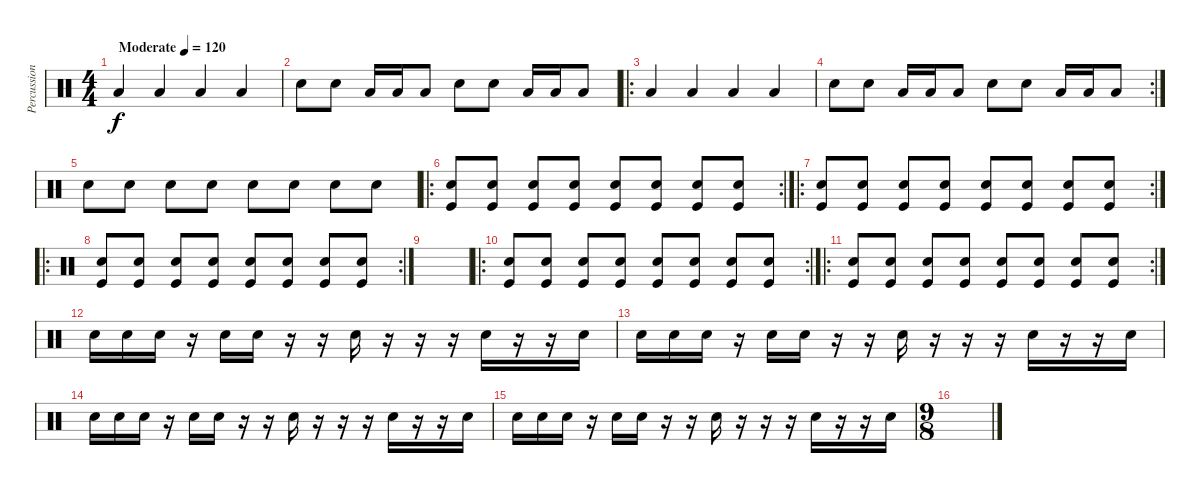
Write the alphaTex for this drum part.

\track ("Percussion" "Percussion") {instrument percussion}
\staff {score}
\articulation defaults
\ts (4 4)
\tempo (120 "Moderate")
\clef neutral
\ks c "Low Tom (hit)".4{dy f} "Low Tom (hit)".4 "Low Tom (hit)".4 "Low Tom (hit)".4
|
"Snare (hit) 2".8 "Snare (hit) 2".8 "Low Floor Tom (hit)".16 "Low Floor Tom (hit)".16 "Low Floor Tom (hit)".8 "Snare (hit) 2".8 "Snare (hit) 2".8 "Low Floor Tom (hit)".16 "Low Floor Tom (hit)".16 "Low Floor Tom (hit)".8 |
\ro "Low Tom (hit)".4 "Low Tom (hit)".4 "Low Tom (hit)".4 "Low Tom (hit)".4
|
\rc 2 "Snare (hit) 2".8 "Snare (hit) 2".8 "Low Floor Tom (hit)".16 "Low Floor Tom (hit)".16 "Low Floor Tom (hit)".8 "Snare (hit) 2".8 "Snare (hit) 2".8 "Low Floor Tom (hit)".16 "Low Floor Tom (hit)".16 "Low Floor Tom (hit)".8
|
"Snare (hit) 2".8 "Snare (hit) 2".8 "Snare (hit) 2".8 "Snare (hit) 2".8 "Snare (hit) 2".8 "Snare (hit) 2".8 "Snare (hit) 2".8 "Snare (hit) 2".8 |
\ro
\rc 2
("Snare (hit) 2" "Kick (hit)").8 ("Snare (hit) 2" "Kick (hit)").8 ("Snare (hit) 2" "Kick (hit)").8 ("Snare (hit) 2" "Kick (hit)").8 ("Snare (hit) 2" "Kick (hit)").8 ("Snare (hit) 2" "Kick (hit)").8 ("Snare (hit) 2" "Kick (hit)").8 ("Snare (hit) 2" "Kick (hit)").8 |
\ro
\rc 2
("Snare (hit) 2" "Kick (hit)").8 ("Snare (hit) 2" "Kick (hit)").8 ("Snare (hit) 2" "Kick (hit)").8 ("Snare (hit) 2" "Kick (hit)").8 ("Snare (hit) 2" "Kick (hit)").8 ("Snare (hit) 2" "Kick (hit)").8 ("Snare (hit) 2" "Kick (hit)").8 ("Snare (hit) 2" "Kick (hit)").8 |
\ro
\rc 2
("Snare (hit) 2" "Kick (hit)").8 ("Snare (hit) 2" "Kick (hit)").8 ("Snare (hit) 2" "Kick (hit)").8 ("Snare (hit) 2" "Kick (hit)").8 ("Snare (hit) 2" "Kick (hit)").8 ("Snare (hit) 2" "Kick (hit)").8 ("Snare (hit) 2" "Kick (hit)").8 ("Snare (hit) 2" "Kick (hit)").8 |
|
\ro
\rc 2
("Snare (hit) 2" "Kick (hit)").8 ("Snare (hit) 2" "Kick (hit)").8 ("Snare (hit) 2" "Kick (hit)").8 ("Snare (hit) 2" "Kick (hit)").8 ("Snare (hit) 2" "Kick (hit)").8 ("Snare (hit) 2" "Kick (hit)").8 ("Snare (hit) 2" "Kick (hit)").8 ("Snare (hit) 2" "Kick (hit)").8 |
\ro
\rc 2
("Snare (hit) 2" "Kick (hit)").8 ("Snare (hit) 2" "Kick (hit)").8 ("Snare (hit) 2" "Kick (hit)").8 ("Snare (hit) 2" "Kick (hit)").8 ("Snare (hit) 2" "Kick (hit)").8 ("Snare (hit) 2" "Kick (hit)").8 ("Snare (hit) 2" "Kick (hit)").8 ("Snare (hit) 2" "Kick (hit)").8 |
"Snare (hit) 2".16 "Snare (hit) 2".16 "Snare (hit) 2".16 r.16 "Snare (hit) 2".16 "Snare (hit) 2".16 r.16 r.16 "Snare (hit) 2".16 r.16 r.16 r.16 "Snare (hit) 2".16 r.16 r.16 "Snare (hit) 2".16 |
"Snare (hit) 2".16 "Snare (hit) 2".16 "Snare (hit) 2".16 r.16 "Snare (hit) 2".16 "Snare (hit) 2".16 r.16 r.16 "Snare (hit) 2".16 r.16 r.16 r.16 "Snare (hit) 2".16 r.16 r.16 "Snare (hit) 2".16 |
"Snare (hit) 2".16 "Snare (hit) 2".16 "Snare (hit) 2".16 r.16 "Snare (hit) 2".16 "Snare (hit) 2".16 r.16 r.16 "Snare (hit) 2".16 r.16 r.16 r.16 "Snare (hit) 2".16 r.16 r.16 "Snare (hit) 2".16 |
"Snare (hit) 2".16 "Snare (hit) 2".16 "Snare (hit) 2".16 r.16 "Snare (hit) 2".16 "Snare (hit) 2".16 r.16 r.16 "Snare (hit) 2".16 r.16 r.16 r.16 "Snare (hit) 2".16 r.16 r.16 "Snare (hit) 2".16 |
\ts (9 8)
